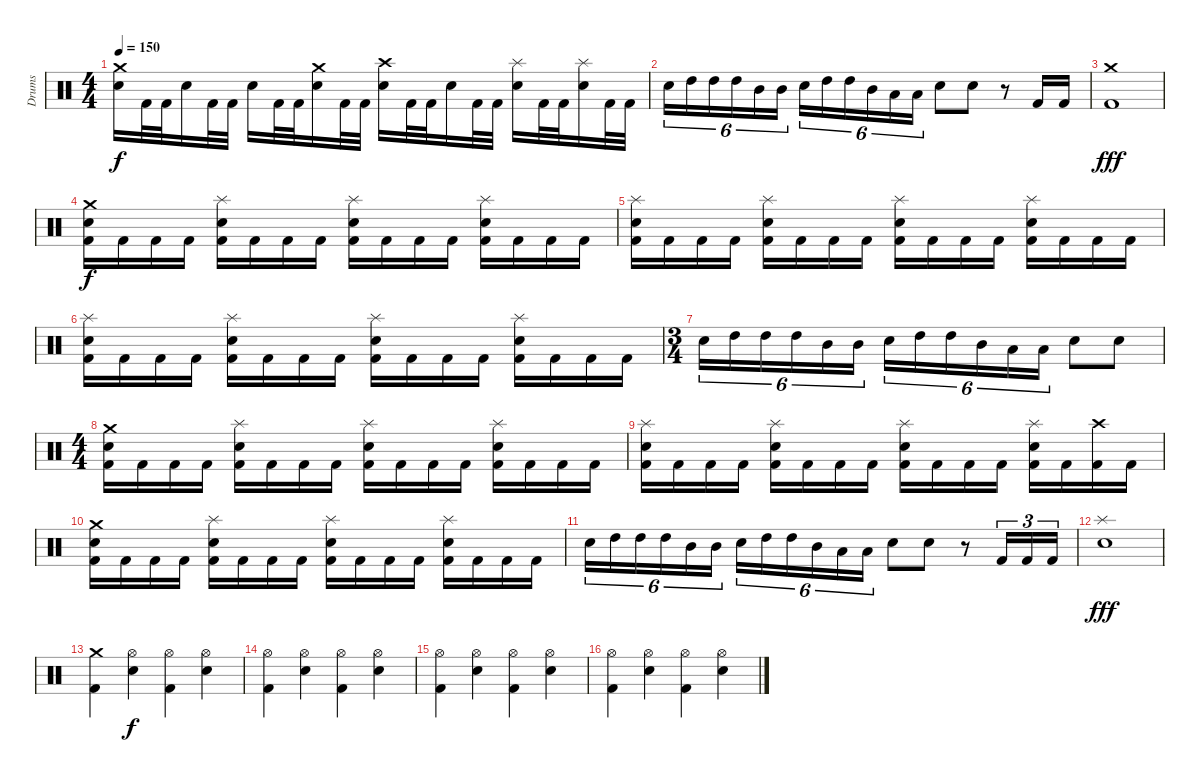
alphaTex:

\track ("Drums" "Drums") {instrument percussion}
\staff {score}
\articulation defaults
\ts (4 4)
\tempo 150
\clef neutral
\ks c
("Crash medium (hit)" "Electric Snare (hit)").16{dy f} "Kick (hit) 2".32 "Kick (hit) 2".32 "Electric Snare (hit)".16 "Kick (hit) 2".32 "Kick (hit) 2".32 "Electric Snare (hit)".16 "Kick (hit) 2".32 "Kick (hit) 2".32 ("Crash medium (hit)" "Electric Snare (hit)").16 "Kick (hit) 2".32 "Kick (hit) 2".32 ("Crash high (hit)" "Electric Snare (hit)").16 "Kick (hit) 2".32 "Kick (hit) 2".32 "Electric Snare (hit)".16 "Kick (hit) 2".32 "Kick (hit) 2".32 ("Splash (hit)" "Electric Snare (hit)").16 "Kick (hit) 2".32 "Kick (hit) 2".32 ("Splash (hit)" "Electric Snare (hit)").16 "Kick (hit) 2".32 "Kick (hit) 2".32 |
"Electric Snare (hit)".16{tu (6 4)} "High Tom (hit)".16{tu (6 4)} "High Tom (hit)".16{tu (6 4)} "High Tom (hit)".16{tu (6 4)} "Mid Tom (hit)".16{tu (6 4)} "Mid Tom (hit)".16{tu (6 4)} "Electric Snare (hit)".16{tu (6 4)} "High Tom (hit)".16{tu (6 4)} "High Tom (hit)".16{tu (6 4)} "Mid Tom (hit)".16{tu (6 4)} "Low Tom (hit)".16{tu (6 4)} "Low Tom (hit)".16{tu (6 4)} "Electric Snare (hit)".8 "Electric Snare (hit)".8 r.8 "Kick (hit) 2".16 "Kick (hit) 2".16 |
("Crash medium (hit)" "Kick (hit) 2").1{dy fff} |
("Crash medium (hit)" "Electric Snare (hit)" "Kick (hit) 2").16{dy f} "Kick (hit) 2".16 "Kick (hit) 2".16 "Kick (hit) 2".16 ("Splash (hit)" "Electric Snare (hit)" "Kick (hit) 2").16 "Kick (hit) 2".16 "Kick (hit) 2".16 "Kick (hit) 2".16 ("Splash (hit)" "Electric Snare (hit)" "Kick (hit) 2").16 "Kick (hit) 2".16 "Kick (hit) 2".16 "Kick (hit) 2".16 ("Splash (hit)" "Electric Snare (hit)" "Kick (hit) 2").16 "Kick (hit) 2".16 "Kick (hit) 2".16 "Kick (hit) 2".16 |
("Splash (hit)" "Electric Snare (hit)" "Kick (hit) 2").16 "Kick (hit) 2".16 "Kick (hit) 2".16 "Kick (hit) 2".16 ("Splash (hit)" "Electric Snare (hit)" "Kick (hit) 2").16 "Kick (hit) 2".16 "Kick (hit) 2".16 "Kick (hit) 2".16 ("Splash (hit)" "Electric Snare (hit)" "Kick (hit) 2").16 "Kick (hit) 2".16 "Kick (hit) 2".16 "Kick (hit) 2".16 ("Splash (hit)" "Electric Snare (hit)" "Kick (hit) 2").16 "Kick (hit) 2".16 "Kick (hit) 2".16 "Kick (hit) 2".16 |
("Splash (hit)" "Electric Snare (hit)" "Kick (hit) 2").16 "Kick (hit) 2".16 "Kick (hit) 2".16 "Kick (hit) 2".16 ("Splash (hit)" "Electric Snare (hit)" "Kick (hit) 2").16 "Kick (hit) 2".16 "Kick (hit) 2".16 "Kick (hit) 2".16 ("Splash (hit)" "Electric Snare (hit)" "Kick (hit) 2").16 "Kick (hit) 2".16 "Kick (hit) 2".16 "Kick (hit) 2".16 ("Splash (hit)" "Electric Snare (hit)" "Kick (hit) 2").16 "Kick (hit) 2".16 "Kick (hit) 2".16 "Kick (hit) 2".16 |
\ts (3 4)
"Electric Snare (hit)".16{tu (6 4)} "High Tom (hit)".16{tu (6 4)} "High Tom (hit)".16{tu (6 4)} "High Tom (hit)".16{tu (6 4)} "Mid Tom (hit)".16{tu (6 4)} "Mid Tom (hit)".16{tu (6 4)} "Electric Snare (hit)".16{tu (6 4)} "High Tom (hit)".16{tu (6 4)} "High Tom (hit)".16{tu (6 4)} "Mid Tom (hit)".16{tu (6 4)} "Low Tom (hit)".16{tu (6 4)} "Low Tom (hit)".16{tu (6 4)} "Electric Snare (hit)".8 "Electric Snare (hit)".8 |
\ts (4 4)
("Crash medium (hit)" "Electric Snare (hit)" "Kick (hit) 2").16 "Kick (hit) 2".16 "Kick (hit) 2".16 "Kick (hit) 2".16 ("Splash (hit)" "Electric Snare (hit)" "Kick (hit) 2").16 "Kick (hit) 2".16 "Kick (hit) 2".16 "Kick (hit) 2".16 ("Splash (hit)" "Electric Snare (hit)" "Kick (hit) 2").16 "Kick (hit) 2".16 "Kick (hit) 2".16 "Kick (hit) 2".16 ("Splash (hit)" "Electric Snare (hit)" "Kick (hit) 2").16 "Kick (hit) 2".16 "Kick (hit) 2".16 "Kick (hit) 2".16 |
("Splash (hit)" "Electric Snare (hit)" "Kick (hit) 2").16 "Kick (hit) 2".16 "Kick (hit) 2".16 "Kick (hit) 2".16 ("Splash (hit)" "Electric Snare (hit)" "Kick (hit) 2").16 "Kick (hit) 2".16 "Kick (hit) 2".16 "Kick (hit) 2".16 ("Splash (hit)" "Electric Snare (hit)" "Kick (hit) 2").16 "Kick (hit) 2".16 "Kick (hit) 2".16 "Kick (hit) 2".16 ("Splash (hit)" "Electric Snare (hit)" "Kick (hit) 2").16 "Kick (hit) 2".16 ("Crash high (hit)" "Kick (hit) 2").16 "Kick (hit) 2".16 |
("Crash medium (hit)" "Electric Snare (hit)" "Kick (hit) 2").16 "Kick (hit) 2".16 "Kick (hit) 2".16 "Kick (hit) 2".16 ("Splash (hit)" "Electric Snare (hit)" "Kick (hit) 2").16 "Kick (hit) 2".16 "Kick (hit) 2".16 "Kick (hit) 2".16 ("Splash (hit)" "Electric Snare (hit)" "Kick (hit) 2").16 "Kick (hit) 2".16 "Kick (hit) 2".16 "Kick (hit) 2".16 ("Splash (hit)" "Electric Snare (hit)" "Kick (hit) 2").16 "Kick (hit) 2".16 "Kick (hit) 2".16 "Kick (hit) 2".16 |
"Electric Snare (hit)".16{tu (6 4)} "High Tom (hit)".16{tu (6 4)} "High Tom (hit)".16{tu (6 4)} "High Tom (hit)".16{tu (6 4)} "Mid Tom (hit)".16{tu (6 4)} "Mid Tom (hit)".16{tu (6 4)} "Electric Snare (hit)".16{tu (6 4)} "High Tom (hit)".16{tu (6 4)} "High Tom (hit)".16{tu (6 4)} "Mid Tom (hit)".16{tu (6 4)} "Low Tom (hit)".16{tu (6 4)} "Low Tom (hit)".16{tu (6 4)} "Electric Snare (hit)".8 "Electric Snare (hit)".8 r.8 "Kick (hit) 2".16{tu (3 2)} "Kick (hit) 2".16{tu (3 2)} "Kick (hit) 2".16{tu (3 2)} |
("Splash (hit)" "Electric Snare (hit)").1{dy fff} |
("Crash medium (hit)" "Kick (hit) 2").4 ("Hi-Hat (open)" "Electric Snare (hit)").4{dy f} ("Hi-Hat (open)" "Kick (hit) 2").4 ("Hi-Hat (open)" "Electric Snare (hit)").4 |
("Hi-Hat (open)" "Kick (hit) 2").4 ("Hi-Hat (open)" "Electric Snare (hit)").4 ("Hi-Hat (open)" "Kick (hit) 2").4 ("Hi-Hat (open)" "Electric Snare (hit)").4 |
("Hi-Hat (open)" "Kick (hit) 2").4 ("Hi-Hat (open)" "Electric Snare (hit)").4 ("Hi-Hat (open)" "Kick (hit) 2").4 ("Hi-Hat (open)" "Electric Snare (hit)").4 |
("Hi-Hat (open)" "Kick (hit) 2").4 ("Hi-Hat (open)" "Electric Snare (hit)").4 ("Hi-Hat (open)" "Kick (hit) 2").4 ("Hi-Hat (open)" "Electric Snare (hit)").4
